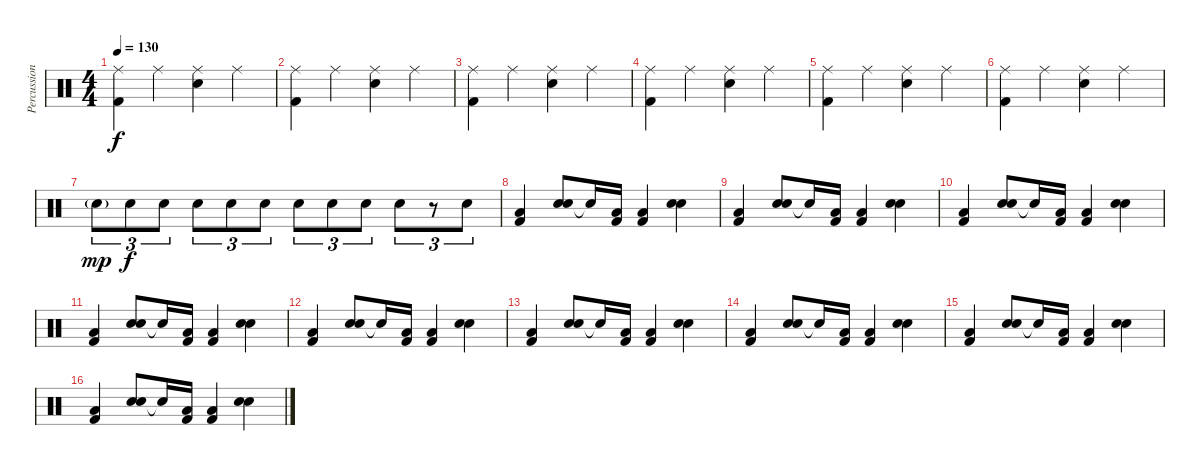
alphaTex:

\track ("Percussion" "Percussion") {instrument percussion}
\staff {score}
\articulation defaults
\ts (4 4)
\tempo 130
\clef neutral
\ks c
("Ride (middle)" "Kick (hit) 2").4{dy f} "Ride (middle)".4 ("Ride (middle)" "Snare (hit) 2").4 "Ride (middle)".4 |
("Ride (middle)" "Kick (hit) 2").4 "Ride (middle)".4 ("Ride (middle)" "Snare (hit) 2").4 "Ride (middle)".4 |
("Ride (middle)" "Kick (hit) 2").4 "Ride (middle)".4 ("Ride (middle)" "Snare (hit) 2").4 "Ride (middle)".4 |
("Ride (middle)" "Kick (hit) 2").4 "Ride (middle)".4 ("Ride (middle)" "Snare (hit) 2").4 "Ride (middle)".4 |
("Ride (middle)" "Kick (hit) 2").4 "Ride (middle)".4 ("Ride (middle)" "Snare (hit) 2").4 "Ride (middle)".4 |
("Ride (middle)" "Kick (hit) 2").4 "Ride (middle)".4 ("Ride (middle)" "Snare (hit) 2").4 "Ride (middle)".4 |
"Snare (hit) 2"{g}.8{tu (3 2) dy mp} "Snare (hit) 2".8{tu (3 2) dy f} "Snare (hit) 2".8{tu (3 2)} "Snare (hit) 2".8{tu (3 2)} "Snare (hit) 2".8{tu (3 2)} "Snare (hit) 2".8{tu (3 2)} "Snare (hit) 2".8{tu (3 2)} "Snare (hit) 2".8{tu (3 2)} "Snare (hit) 2".8{tu (3 2)} "Snare (hit) 2".8{tu (3 2)} r.8{tu (3 2)} "Snare (hit) 2".8{tu (3 2)} |
("Low Floor Tom (hit)" "Kick (hit) 2").4 ("Hand Clap (hit)" "Snare (hit) 2").8 "Snare (hit)"{t}.16 ("Low Floor Tom (hit)" "Kick (hit) 2").16 ("Low Floor Tom (hit)" "Kick (hit) 2").4 ("Hand Clap (hit)" "Snare (hit) 2").4 |
("Low Floor Tom (hit)" "Kick (hit) 2").4 ("Hand Clap (hit)" "Snare (hit) 2").8 "Snare (hit)"{t}.16 ("Low Floor Tom (hit)" "Kick (hit) 2").16 ("Low Floor Tom (hit)" "Kick (hit) 2").4 ("Hand Clap (hit)" "Snare (hit) 2").4 |
("Low Floor Tom (hit)" "Kick (hit) 2").4 ("Hand Clap (hit)" "Snare (hit) 2").8 "Snare (hit)"{t}.16 ("Low Floor Tom (hit)" "Kick (hit) 2").16 ("Low Floor Tom (hit)" "Kick (hit) 2").4 ("Hand Clap (hit)" "Snare (hit) 2").4 |
("Low Floor Tom (hit)" "Kick (hit) 2").4 ("Hand Clap (hit)" "Snare (hit) 2").8 "Snare (hit)"{t}.16 ("Low Floor Tom (hit)" "Kick (hit) 2").16 ("Low Floor Tom (hit)" "Kick (hit) 2").4 ("Hand Clap (hit)" "Snare (hit) 2").4 |
("Low Floor Tom (hit)" "Kick (hit) 2").4 ("Hand Clap (hit)" "Snare (hit) 2").8 "Snare (hit)"{t}.16 ("Low Floor Tom (hit)" "Kick (hit) 2").16 ("Low Floor Tom (hit)" "Kick (hit) 2").4 ("Hand Clap (hit)" "Snare (hit) 2").4 |
("Low Floor Tom (hit)" "Kick (hit) 2").4 ("Hand Clap (hit)" "Snare (hit) 2").8 "Snare (hit)"{t}.16 ("Low Floor Tom (hit)" "Kick (hit) 2").16 ("Low Floor Tom (hit)" "Kick (hit) 2").4 ("Hand Clap (hit)" "Snare (hit) 2").4 |
("Low Floor Tom (hit)" "Kick (hit) 2").4 ("Hand Clap (hit)" "Snare (hit) 2").8 "Snare (hit)"{t}.16 ("Low Floor Tom (hit)" "Kick (hit) 2").16 ("Low Floor Tom (hit)" "Kick (hit) 2").4 ("Hand Clap (hit)" "Snare (hit) 2").4 |
("Low Floor Tom (hit)" "Kick (hit) 2").4 ("Hand Clap (hit)" "Snare (hit) 2").8 "Snare (hit)"{t}.16 ("Low Floor Tom (hit)" "Kick (hit) 2").16 ("Low Floor Tom (hit)" "Kick (hit) 2").4 ("Hand Clap (hit)" "Snare (hit) 2").4 |
("Low Floor Tom (hit)" "Kick (hit) 2").4 ("Hand Clap (hit)" "Snare (hit) 2").8 "Snare (hit)"{t}.16 ("Low Floor Tom (hit)" "Kick (hit) 2").16 ("Low Floor Tom (hit)" "Kick (hit) 2").4 ("Hand Clap (hit)" "Snare (hit) 2").4
